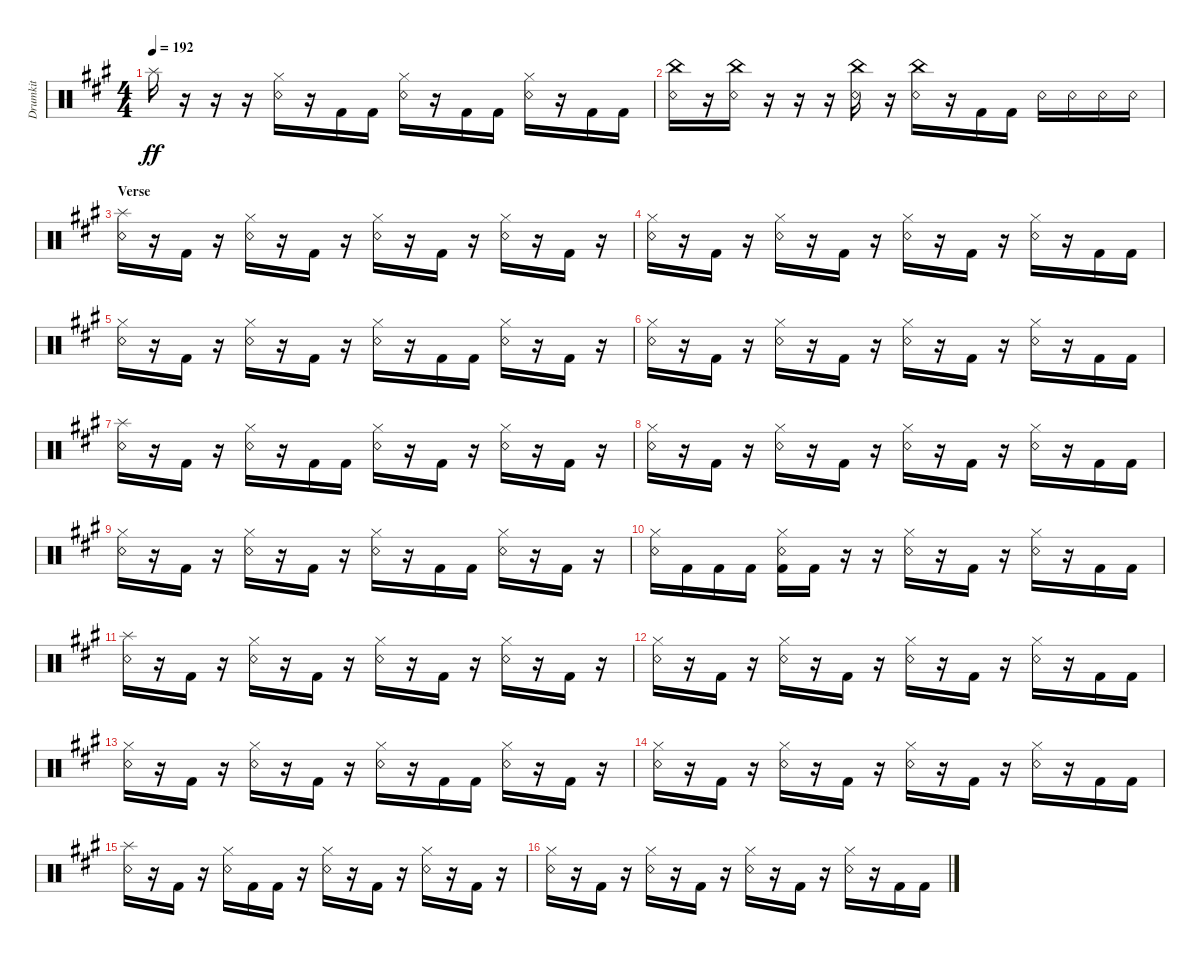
\track ("Drumkit" "Drumkit") {instrument percussion}
\staff {score}
\articulation defaults
\ts (4 4)
\tempo 192
\clef neutral
\ks a "Splash (hit)".16{dy ff}
r.16 r.16 r.16 ("Hi-Hat (closed)" "Snare (rim shot)").16 r.16 "Kick (hit) 2".16 "Kick (hit) 2".16 ("Hi-Hat (closed)" "Snare (rim shot)").16 r.16 "Kick (hit) 2".16 "Kick (hit) 2".16 ("Hi-Hat (closed)" "Snare (rim shot)").16 r.16 "Kick (hit) 2".16 "Kick (hit) 2".16 |
("Snare (rim shot)" "China (hit)").16 r.16 ("China (hit)" "Snare (rim shot)").16 r.16 r.16 r.16 ("Snare (rim shot)" "China (hit)").16 r.16 ("Snare (rim shot)" "China (hit)").16 r.16 "Kick (hit) 2".16 "Kick (hit) 2".16 "Snare (rim shot)".16 "Snare (rim shot)".16 "Snare (rim shot)".16 "Snare (rim shot)".16 |
\section ("" "Verse")
("Snare (rim shot)" "Splash (hit)").16 r.16 "Kick (hit) 2".16 r.16 ("Snare (rim shot)" "Hi-Hat (closed)").16 r.16 "Kick (hit) 2".16 r.16 ("Snare (rim shot)" "Hi-Hat (closed)").16 r.16 "Kick (hit) 2".16 r.16 ("Snare (rim shot)" "Hi-Hat (closed)").16 r.16 "Kick (hit) 2".16 r.16 |
("Snare (rim shot)" "Hi-Hat (closed)").16 r.16 "Kick (hit) 2".16 r.16 ("Snare (rim shot)" "Hi-Hat (closed)").16 r.16 "Kick (hit) 2".16 r.16 ("Snare (rim shot)" "Hi-Hat (closed)").16 r.16 "Kick (hit) 2".16 r.16 ("Snare (rim shot)" "Hi-Hat (closed)").16 r.16 "Kick (hit) 2".16 "Kick (hit) 2".16 |
("Snare (rim shot)" "Hi-Hat (closed)").16 r.16 "Kick (hit) 2".16 r.16 ("Snare (rim shot)" "Hi-Hat (closed)").16 r.16 "Kick (hit) 2".16 r.16 ("Snare (rim shot)" "Hi-Hat (closed)").16 r.16 "Kick (hit) 2".16 "Kick (hit) 2".16 ("Snare (rim shot)" "Hi-Hat (closed)").16 r.16 "Kick (hit) 2".16 r.16 |
("Snare (rim shot)" "Hi-Hat (closed)").16 r.16 "Kick (hit) 2".16 r.16 ("Snare (rim shot)" "Hi-Hat (closed)").16 r.16 "Kick (hit) 2".16 r.16 ("Snare (rim shot)" "Hi-Hat (closed)").16 r.16 "Kick (hit) 2".16 r.16 ("Snare (rim shot)" "Hi-Hat (closed)").16 r.16 "Kick (hit) 2".16 "Kick (hit) 2".16 |
("Snare (rim shot)" "Splash (hit)").16 r.16 "Kick (hit) 2".16 r.16 ("Snare (rim shot)" "Hi-Hat (closed)").16 r.16 "Kick (hit) 2".16 "Kick (hit) 2".16 ("Snare (rim shot)" "Hi-Hat (closed)").16 r.16 "Kick (hit) 2".16 r.16 ("Snare (rim shot)" "Hi-Hat (closed)").16 r.16 "Kick (hit) 2".16 r.16 |
("Snare (rim shot)" "Hi-Hat (closed)").16 r.16 "Kick (hit) 2".16 r.16 ("Snare (rim shot)" "Hi-Hat (closed)").16 r.16 "Kick (hit) 2".16 r.16 ("Snare (rim shot)" "Hi-Hat (closed)").16 r.16 "Kick (hit) 2".16 r.16 ("Snare (rim shot)" "Hi-Hat (closed)").16 r.16 "Kick (hit) 2".16 "Kick (hit) 2".16 |
("Snare (rim shot)" "Hi-Hat (closed)").16 r.16 "Kick (hit) 2".16 r.16 ("Snare (rim shot)" "Hi-Hat (closed)").16 r.16 "Kick (hit) 2".16 r.16 ("Snare (rim shot)" "Hi-Hat (closed)").16 r.16 "Kick (hit) 2".16 "Kick (hit) 2".16 ("Snare (rim shot)" "Hi-Hat (closed)").16 r.16 "Kick (hit) 2".16 r.16 |
("Snare (rim shot)" "Hi-Hat (closed)").16 "Kick (hit) 2".16 "Kick (hit) 2".16 "Kick (hit) 2".16 ("Hi-Hat (closed)" "Kick (hit) 2" "Snare (rim shot)").16 "Kick (hit) 2".16 r.16 r.16 ("Snare (rim shot)" "Hi-Hat (closed)").16 r.16 "Kick (hit) 2".16 r.16 ("Snare (rim shot)" "Hi-Hat (closed)").16 r.16 "Kick (hit) 2".16 "Kick (hit) 2".16 |
("Snare (rim shot)" "Splash (hit)").16 r.16 "Kick (hit) 2".16 r.16 ("Snare (rim shot)" "Hi-Hat (closed)").16 r.16 "Kick (hit) 2".16 r.16 ("Snare (rim shot)" "Hi-Hat (closed)").16 r.16 "Kick (hit) 2".16 r.16 ("Snare (rim shot)" "Hi-Hat (closed)").16 r.16 "Kick (hit) 2".16 r.16 |
("Snare (rim shot)" "Hi-Hat (closed)").16 r.16 "Kick (hit) 2".16 r.16 ("Snare (rim shot)" "Hi-Hat (closed)").16 r.16 "Kick (hit) 2".16 r.16 ("Snare (rim shot)" "Hi-Hat (closed)").16 r.16 "Kick (hit) 2".16 r.16 ("Snare (rim shot)" "Hi-Hat (closed)").16 r.16 "Kick (hit) 2".16 "Kick (hit) 2".16 |
("Snare (rim shot)" "Hi-Hat (closed)").16 r.16 "Kick (hit) 2".16 r.16 ("Snare (rim shot)" "Hi-Hat (closed)").16 r.16 "Kick (hit) 2".16 r.16 ("Snare (rim shot)" "Hi-Hat (closed)").16 r.16 "Kick (hit) 2".16 "Kick (hit) 2".16 ("Snare (rim shot)" "Hi-Hat (closed)").16 r.16 "Kick (hit) 2".16 r.16 |
("Snare (rim shot)" "Hi-Hat (closed)").16 r.16 "Kick (hit) 2".16 r.16 ("Snare (rim shot)" "Hi-Hat (closed)").16 r.16 "Kick (hit) 2".16 r.16 ("Snare (rim shot)" "Hi-Hat (closed)").16 r.16 "Kick (hit) 2".16 r.16 ("Snare (rim shot)" "Hi-Hat (closed)").16 r.16 "Kick (hit) 2".16 "Kick (hit) 2".16 |
("Snare (rim shot)" "Splash (hit)").16 r.16 "Kick (hit) 2".16 r.16 ("Snare (rim shot)" "Hi-Hat (closed)").16 "Kick (hit) 2".16 "Kick (hit) 2".16 r.16 ("Snare (rim shot)" "Hi-Hat (closed)").16 r.16 "Kick (hit) 2".16 r.16 ("Snare (rim shot)" "Hi-Hat (closed)").16 r.16 "Kick (hit) 2".16 r.16 |
("Snare (rim shot)" "Hi-Hat (closed)").16 r.16 "Kick (hit) 2".16 r.16 ("Snare (rim shot)" "Hi-Hat (closed)").16 r.16 "Kick (hit) 2".16 r.16 ("Snare (rim shot)" "Hi-Hat (closed)").16 r.16 "Kick (hit) 2".16 r.16 ("Snare (rim shot)" "Hi-Hat (closed)").16 r.16 "Kick (hit) 2".16 "Kick (hit) 2".16
